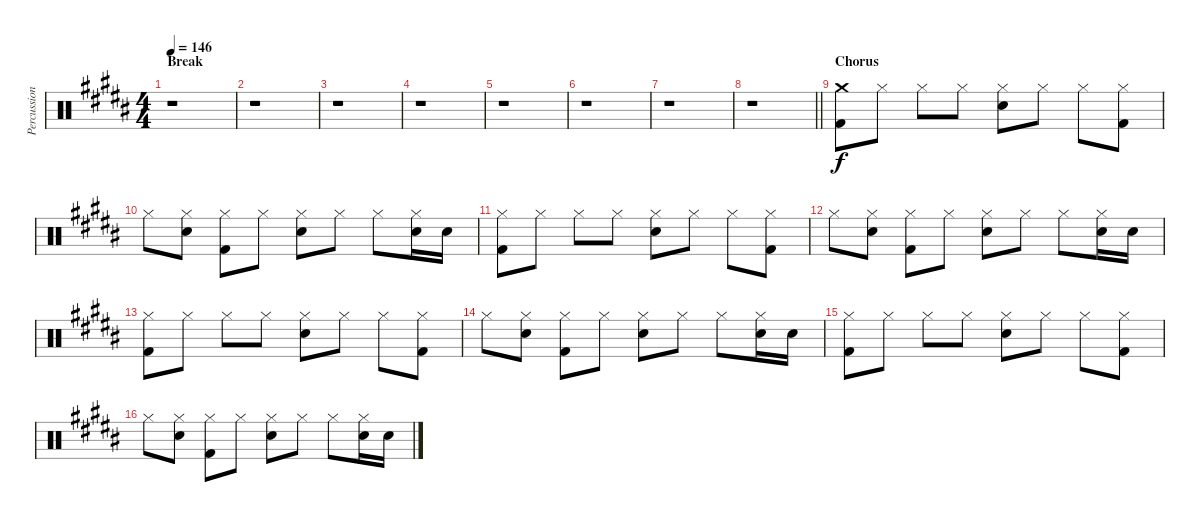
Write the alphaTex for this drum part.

\track ("Percussion" "Percussion") {instrument percussion}
\staff {score}
\articulation defaults
\ts (4 4)
\section ("" "Break")
\tempo 146
\clef neutral
\ks b
r.1{dy f} |
r.1 |
r.1 |
r.1 |
r.1 |
r.1 |
r.1 |
\barLineRight lightlight
r.1 |
\section ("" "Chorus")
("Crash medium (hit)" "Kick (hit) 2").8{volume 13} "Hi-Hat (closed)".8 "Hi-Hat (closed)".8 "Hi-Hat (closed)".8 ("Hi-Hat (closed)" "Snare (hit) 2").8 "Hi-Hat (closed)".8 "Hi-Hat (closed)".8 ("Hi-Hat (closed)" "Kick (hit) 2").8 |
"Hi-Hat (closed)".8 ("Hi-Hat (closed)" "Snare (hit) 2").8 ("Hi-Hat (closed)" "Kick (hit) 2").8 "Hi-Hat (closed)".8 ("Hi-Hat (closed)" "Snare (hit) 2").8 "Hi-Hat (closed)".8 "Hi-Hat (closed)".8 ("Hi-Hat (closed)" "Snare (hit) 2").16 "Snare (hit) 2".16 |
("Hi-Hat (closed)" "Kick (hit) 2").8 "Hi-Hat (closed)".8 "Hi-Hat (closed)".8 "Hi-Hat (closed)".8 ("Hi-Hat (closed)" "Snare (hit) 2").8 "Hi-Hat (closed)".8 "Hi-Hat (closed)".8 ("Hi-Hat (closed)" "Kick (hit) 2").8 |
"Hi-Hat (closed)".8 ("Hi-Hat (closed)" "Snare (hit) 2").8 ("Hi-Hat (closed)" "Kick (hit) 2").8 "Hi-Hat (closed)".8 ("Hi-Hat (closed)" "Snare (hit) 2").8 "Hi-Hat (closed)".8 "Hi-Hat (closed)".8 ("Hi-Hat (closed)" "Snare (hit) 2").16 "Snare (hit) 2".16 |
("Hi-Hat (closed)" "Kick (hit) 2").8 "Hi-Hat (closed)".8 "Hi-Hat (closed)".8 "Hi-Hat (closed)".8 ("Hi-Hat (closed)" "Snare (hit) 2").8 "Hi-Hat (closed)".8 "Hi-Hat (closed)".8 ("Hi-Hat (closed)" "Kick (hit) 2").8 |
"Hi-Hat (closed)".8 ("Hi-Hat (closed)" "Snare (hit) 2").8 ("Hi-Hat (closed)" "Kick (hit) 2").8 "Hi-Hat (closed)".8 ("Hi-Hat (closed)" "Snare (hit) 2").8 "Hi-Hat (closed)".8 "Hi-Hat (closed)".8 ("Hi-Hat (closed)" "Snare (hit) 2").16 "Snare (hit) 2".16 |
("Hi-Hat (closed)" "Kick (hit) 2").8 "Hi-Hat (closed)".8 "Hi-Hat (closed)".8 "Hi-Hat (closed)".8 ("Hi-Hat (closed)" "Snare (hit) 2").8 "Hi-Hat (closed)".8 "Hi-Hat (closed)".8 ("Hi-Hat (closed)" "Kick (hit) 2").8 |
"Hi-Hat (closed)".8 ("Hi-Hat (closed)" "Snare (hit) 2").8 ("Hi-Hat (closed)" "Kick (hit) 2").8 "Hi-Hat (closed)".8 ("Hi-Hat (closed)" "Snare (hit) 2").8 "Hi-Hat (closed)".8 "Hi-Hat (closed)".8 ("Hi-Hat (closed)" "Snare (hit) 2").16 "Snare (hit) 2".16
